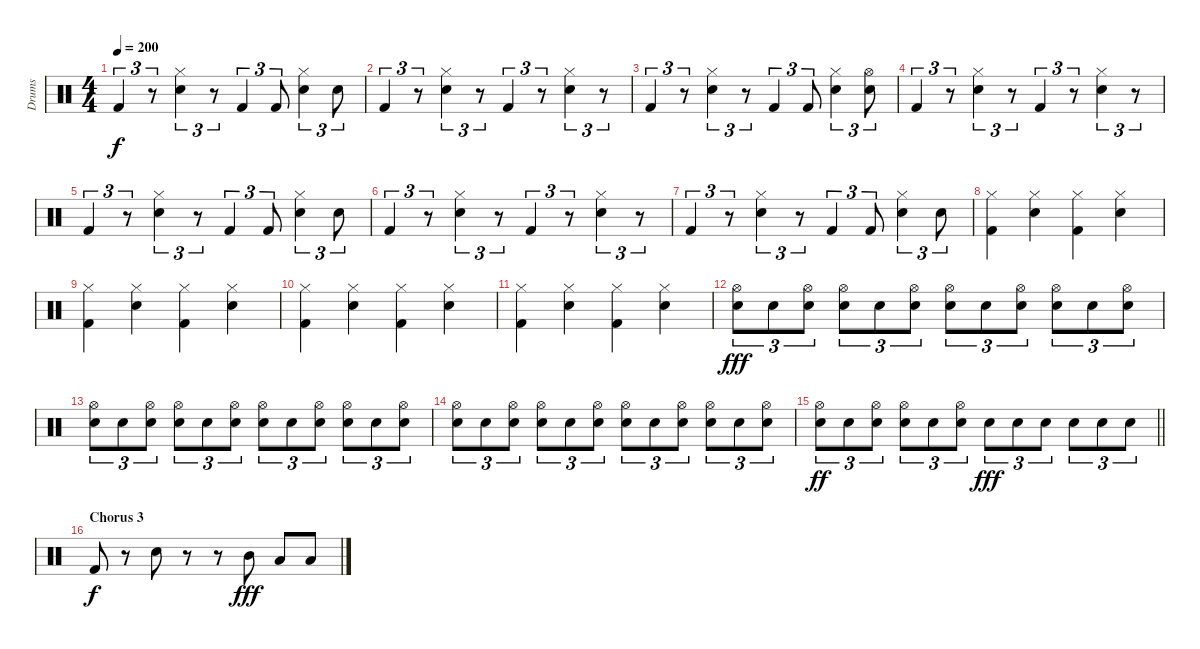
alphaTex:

\track ("Drums" "Drums") {instrument percussion}
\staff {score}
\articulation defaults
\ts (4 4)
\tempo 200
\clef neutral
\ks c "Kick (hit) 2".4{tu (3 2) dy f}
r.8{tu (3 2)} ("Hi-Hat (closed)" "Snare (hit) 2").4{tu (3 2)} r.8{tu (3 2)} "Kick (hit) 2".4{tu (3 2)} "Kick (hit) 2".8{tu (3 2)} ("Hi-Hat (closed)" "Snare (hit) 2").4{tu (3 2)} "Snare (hit) 2".8{tu (3 2)} |
"Kick (hit) 2".4{tu (3 2)} r.8{tu (3 2)} ("Hi-Hat (closed)" "Snare (hit) 2").4{tu (3 2)} r.8{tu (3 2)} "Kick (hit) 2".4{tu (3 2)} r.8{tu (3 2)} ("Hi-Hat (closed)" "Snare (hit) 2").4{tu (3 2)} r.8{tu (3 2)} |
"Kick (hit) 2".4{tu (3 2)} r.8{tu (3 2)} ("Hi-Hat (closed)" "Snare (hit) 2").4{tu (3 2)} r.8{tu (3 2)} "Kick (hit) 2".4{tu (3 2)} "Kick (hit) 2".8{tu (3 2)} ("Hi-Hat (closed)" "Snare (hit) 2").4{tu (3 2)} ("Hi-Hat (open)" "Snare (hit) 2").8{tu (3 2)} |
"Kick (hit) 2".4{tu (3 2)} r.8{tu (3 2)} ("Hi-Hat (closed)" "Snare (hit) 2").4{tu (3 2)} r.8{tu (3 2)} "Kick (hit) 2".4{tu (3 2)} r.8{tu (3 2)} ("Hi-Hat (closed)" "Snare (hit) 2").4{tu (3 2)} r.8{tu (3 2)} |
"Kick (hit) 2".4{tu (3 2)} r.8{tu (3 2)} ("Hi-Hat (closed)" "Snare (hit) 2").4{tu (3 2)} r.8{tu (3 2)} "Kick (hit) 2".4{tu (3 2)} "Kick (hit) 2".8{tu (3 2)} ("Hi-Hat (closed)" "Snare (hit) 2").4{tu (3 2)} "Snare (hit) 2".8{tu (3 2)} |
"Kick (hit) 2".4{tu (3 2)} r.8{tu (3 2)} ("Hi-Hat (closed)" "Snare (hit) 2").4{tu (3 2)} r.8{tu (3 2)} "Kick (hit) 2".4{tu (3 2)} r.8{tu (3 2)} ("Hi-Hat (closed)" "Snare (hit) 2").4{tu (3 2)} r.8{tu (3 2)} |
"Kick (hit) 2".4{tu (3 2)} r.8{tu (3 2)} ("Hi-Hat (closed)" "Snare (hit) 2").4{tu (3 2)} r.8{tu (3 2)} "Kick (hit) 2".4{tu (3 2)} "Kick (hit) 2".8{tu (3 2)} ("Hi-Hat (closed)" "Snare (hit) 2").4{tu (3 2)} "Snare (hit) 2".8{tu (3 2)} |
("Hi-Hat (closed)" "Kick (hit) 2").4 ("Hi-Hat (closed)" "Snare (hit) 2").4 ("Hi-Hat (closed)" "Kick (hit) 2").4 ("Hi-Hat (closed)" "Snare (hit) 2").4 |
("Hi-Hat (closed)" "Kick (hit) 2").4 ("Hi-Hat (closed)" "Snare (hit) 2").4 ("Hi-Hat (closed)" "Kick (hit) 2").4 ("Hi-Hat (closed)" "Snare (hit) 2").4 |
("Hi-Hat (closed)" "Kick (hit) 2").4 ("Hi-Hat (closed)" "Snare (hit) 2").4 ("Hi-Hat (closed)" "Kick (hit) 2").4 ("Hi-Hat (closed)" "Snare (hit) 2").4 |
("Hi-Hat (closed)" "Kick (hit) 2").4 ("Hi-Hat (closed)" "Snare (hit) 2").4 ("Hi-Hat (closed)" "Kick (hit) 2").4 ("Hi-Hat (closed)" "Snare (hit) 2").4 |
("Hi-Hat (open)" "Snare (hit) 2").8{tu (3 2) dy fff} "Snare (hit) 2".8{tu (3 2)} ("Hi-Hat (open)" "Snare (hit) 2").8{tu (3 2)} ("Hi-Hat (open)" "Snare (hit) 2").8{tu (3 2)} "Snare (hit) 2".8{tu (3 2)} ("Hi-Hat (open)" "Snare (hit) 2").8{tu (3 2)} ("Hi-Hat (open)" "Snare (hit) 2").8{tu (3 2)} "Snare (hit) 2".8{tu (3 2)} ("Hi-Hat (open)" "Snare (hit) 2").8{tu (3 2)} ("Hi-Hat (open)" "Snare (hit) 2").8{tu (3 2)} "Snare (hit) 2".8{tu (3 2)} ("Hi-Hat (open)" "Snare (hit) 2").8{tu (3 2)} |
("Hi-Hat (open)" "Snare (hit) 2").8{tu (3 2)} "Snare (hit) 2".8{tu (3 2)} ("Hi-Hat (open)" "Snare (hit) 2").8{tu (3 2)} ("Hi-Hat (open)" "Snare (hit) 2").8{tu (3 2)} "Snare (hit) 2".8{tu (3 2)} ("Hi-Hat (open)" "Snare (hit) 2").8{tu (3 2)} ("Hi-Hat (open)" "Snare (hit) 2").8{tu (3 2)} "Snare (hit) 2".8{tu (3 2)} ("Hi-Hat (open)" "Snare (hit) 2").8{tu (3 2)} ("Hi-Hat (open)" "Snare (hit) 2").8{tu (3 2)} "Snare (hit) 2".8{tu (3 2)} ("Hi-Hat (open)" "Snare (hit) 2").8{tu (3 2)} |
("Hi-Hat (open)" "Snare (hit) 2").8{tu (3 2)} "Snare (hit) 2".8{tu (3 2)} ("Hi-Hat (open)" "Snare (hit) 2").8{tu (3 2)} ("Hi-Hat (open)" "Snare (hit) 2").8{tu (3 2)} "Snare (hit) 2".8{tu (3 2)} ("Hi-Hat (open)" "Snare (hit) 2").8{tu (3 2)} ("Hi-Hat (open)" "Snare (hit) 2").8{tu (3 2)} "Snare (hit) 2".8{tu (3 2)} ("Hi-Hat (open)" "Snare (hit) 2").8{tu (3 2)} ("Hi-Hat (open)" "Snare (hit) 2").8{tu (3 2)} "Snare (hit) 2".8{tu (3 2)} ("Hi-Hat (open)" "Snare (hit) 2").8{tu (3 2)} |
\barLineRight lightlight
("Hi-Hat (open)" "Snare (hit) 2").8{tu (3 2) dy ff} "Snare (hit) 2".8{tu (3 2)} ("Hi-Hat (open)" "Snare (hit) 2").8{tu (3 2)} ("Hi-Hat (open)" "Snare (hit) 2").8{tu (3 2)} "Snare (hit) 2".8{tu (3 2)} ("Hi-Hat (open)" "Snare (hit) 2").8{tu (3 2)} "Snare (hit) 2".8{tu (3 2) dy fff} "Snare (hit) 2".8{tu (3 2)} "Snare (hit) 2".8{tu (3 2)} "Snare (hit) 2".8{tu (3 2)} "Snare (hit) 2".8{tu (3 2)} "Snare (hit) 2".8{tu (3 2)} |
\section ("" "Chorus 3")
"Kick (hit) 2".8{dy f} r.8 "Snare (hit) 2".8 r.8 r.8 "Mid Tom (hit)".8{dy fff} "Low Tom (hit)".8 "Low Floor Tom (hit)".8
